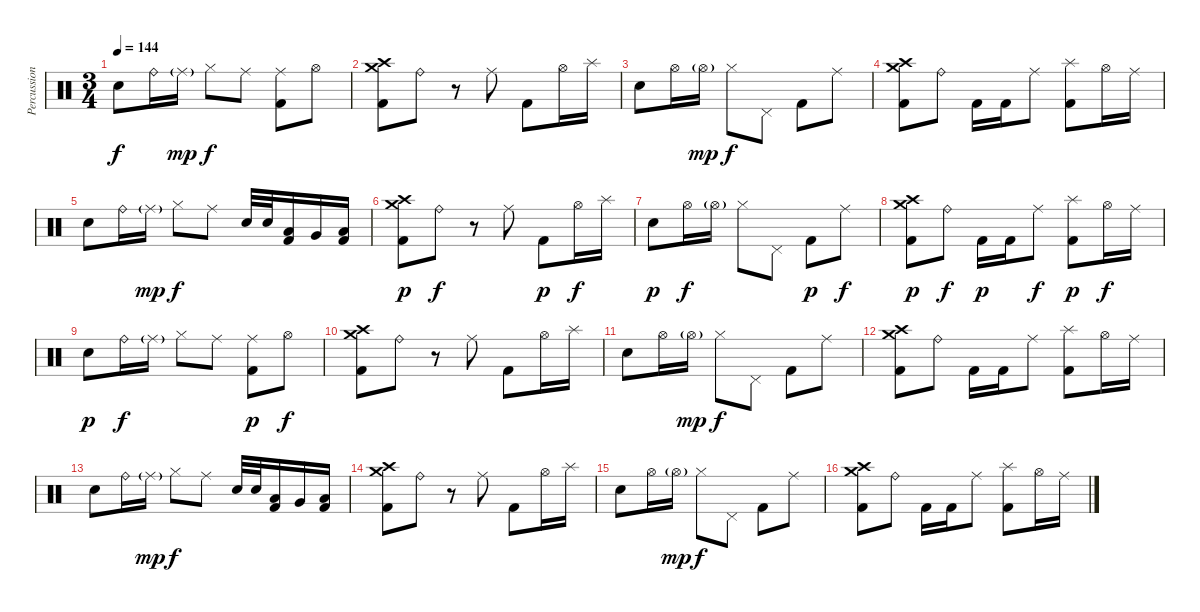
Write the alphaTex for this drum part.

\track ("Percussion" "Percussion") {instrument percussion}
\staff {score}
\articulation defaults
\ts (3 4)
\tempo 144
\clef neutral
\ks c "Electric Snare (hit)".8{dy f} "Ride (bell)".16 "Ride (middle)"{g}.16{dy mp} "Hi-Hat (closed)".8{dy f} "Ride (middle)".8
("Ride (middle)" "Kick (hit) 2").8 "Hi-Hat (open)".8 |
("Crash high (hit)" "Crash medium (hit)" "Kick (hit) 2").8 "Ride (bell)".8 r.8 "Ride (middle)".8 "Kick (hit) 2".8 "Hi-Hat (open)".16 "Splash (hit)".16 |
"Electric Snare (hit)".8 "Hi-Hat (open)".16 "Hi-Hat (open)"{g}.16{dy mp} "Hi-Hat (closed)".8{dy f} "Pedal Hi-Hat (hit)".8 "Kick (hit) 2".8 "Ride (middle)".8 |
("Crash high (hit)" "Crash medium (hit)" "Kick (hit) 2").8 "Ride (bell)".8 "Kick (hit) 2".16 "Kick (hit) 2".16 "Ride (middle)".8 ("Splash (hit)" "Kick (hit) 2").8 "Hi-Hat (open)".16 "Ride (middle)".16 |
"Electric Snare (hit)".8 "Ride (bell)".16 "Ride (middle)"{g}.16{dy mp} "Hi-Hat (closed)".8{dy f} "Ride (middle)".8 "Electric Snare (hit)".32 "Electric Snare (hit)".32 ("Low Tom (hit)" "Kick (hit) 2").16 "Very Low Tom (hit)".16 ("Low Tom (hit)" "Kick (hit) 2").16 |
("Crash high (hit)" "Crash medium (hit)" "Kick (hit) 2").8{dy p} "Ride (bell)".8{dy f} r.8 "Ride (middle)".8 "Kick (hit) 2".8{dy p} "Hi-Hat (open)".16{dy f} "Splash (hit)".16 |
"Electric Snare (hit)".8{dy p} "Hi-Hat (open)".16{dy f} "Hi-Hat (open)"{g}.16 "Hi-Hat (closed)".8 "Pedal Hi-Hat (hit)".8 "Kick (hit) 2".8{dy p} "Ride (middle)".8{dy f} |
("Crash high (hit)" "Crash medium (hit)" "Kick (hit) 2").8{dy p} "Ride (bell)".8{dy f} "Kick (hit) 2".16{dy p} "Kick (hit) 2".16 "Ride (middle)".8{dy f} ("Splash (hit)" "Kick (hit) 2").8{dy p} "Hi-Hat (open)".16{dy f} "Ride (middle)".16 |
"Electric Snare (hit)".8{dy p} "Ride (bell)".16{dy f} "Ride (middle)"{g}.16 "Hi-Hat (closed)".8 "Ride (middle)".8 ("Ride (middle)" "Kick (hit) 2").8{dy p} "Hi-Hat (open)".8{dy f} |
("Crash high (hit)" "Crash medium (hit)" "Kick (hit) 2").8 "Ride (bell)".8 r.8 "Ride (middle)".8 "Kick (hit) 2".8 "Hi-Hat (open)".16 "Splash (hit)".16 |
"Electric Snare (hit)".8 "Hi-Hat (open)".16 "Hi-Hat (open)"{g}.16{dy mp} "Hi-Hat (closed)".8{dy f} "Pedal Hi-Hat (hit)".8 "Kick (hit) 2".8 "Ride (middle)".8 |
("Crash high (hit)" "Crash medium (hit)" "Kick (hit) 2").8 "Ride (bell)".8 "Kick (hit) 2".16 "Kick (hit) 2".16 "Ride (middle)".8 ("Splash (hit)" "Kick (hit) 2").8 "Hi-Hat (open)".16 "Ride (middle)".16 |
"Electric Snare (hit)".8 "Ride (bell)".16 "Ride (middle)"{g}.16{dy mp} "Hi-Hat (closed)".8{dy f} "Ride (middle)".8 "Electric Snare (hit)".32 "Electric Snare (hit)".32 ("Low Tom (hit)" "Kick (hit) 2").16 "Very Low Tom (hit)".16 ("Low Tom (hit)" "Kick (hit) 2").16 |
("Crash high (hit)" "Crash medium (hit)" "Kick (hit) 2").8 "Ride (bell)".8 r.8 "Ride (middle)".8 "Kick (hit) 2".8 "Hi-Hat (open)".16 "Splash (hit)".16 |
"Electric Snare (hit)".8 "Hi-Hat (open)".16 "Hi-Hat (open)"{g}.16{dy mp} "Hi-Hat (closed)".8{dy f} "Pedal Hi-Hat (hit)".8 "Kick (hit) 2".8 "Ride (middle)".8 |
("Crash high (hit)" "Crash medium (hit)" "Kick (hit) 2").8 "Ride (bell)".8 "Kick (hit) 2".16 "Kick (hit) 2".16 "Ride (middle)".8 ("Splash (hit)" "Kick (hit) 2").8 "Hi-Hat (open)".16 "Ride (middle)".16
